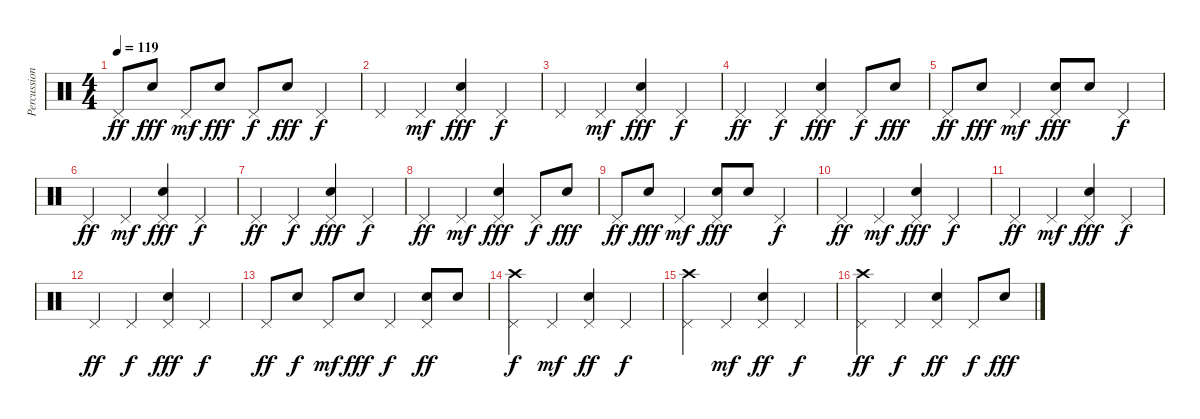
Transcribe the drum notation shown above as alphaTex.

\track ("Percussion" "Percussion") {instrument percussion}
\staff {score}
\articulation defaults
\ts (4 4)
\tempo 119
\clef neutral
\ks c "Pedal Hi-Hat (hit)".8{dy ff} "Electric Snare (hit)".8{dy fff} "Pedal Hi-Hat (hit)".8{dy mf} "Electric Snare (hit)".8{dy fff} "Pedal Hi-Hat (hit)".8{dy f} "Electric Snare (hit)".8{dy fff} "Pedal Hi-Hat (hit)".4{dy f}
|
"Pedal Hi-Hat (hit)".4 "Pedal Hi-Hat (hit)".4{dy mf} ("Pedal Hi-Hat (hit)" "Electric Snare (hit)").4{dy fff} "Pedal Hi-Hat (hit)".4{dy f} |
"Pedal Hi-Hat (hit)".4 "Pedal Hi-Hat (hit)".4{dy mf} ("Pedal Hi-Hat (hit)" "Electric Snare (hit)").4{dy fff} "Pedal Hi-Hat (hit)".4{dy f} |
"Pedal Hi-Hat (hit)".4{dy ff} "Pedal Hi-Hat (hit)".4{dy f} ("Pedal Hi-Hat (hit)" "Electric Snare (hit)").4{dy fff} "Pedal Hi-Hat (hit)".8{dy f} "Electric Snare (hit)".8{dy fff} |
"Pedal Hi-Hat (hit)".8{dy ff} "Electric Snare (hit)".8{dy fff} "Pedal Hi-Hat (hit)".4{dy mf} ("Pedal Hi-Hat (hit)" "Electric Snare (hit)").8{dy fff} "Electric Snare (hit)".8 "Pedal Hi-Hat (hit)".4{dy f} |
"Pedal Hi-Hat (hit)".4{dy ff} "Pedal Hi-Hat (hit)".4{dy mf} ("Pedal Hi-Hat (hit)" "Electric Snare (hit)").4{dy fff} "Pedal Hi-Hat (hit)".4{dy f} |
"Pedal Hi-Hat (hit)".4{dy ff} "Pedal Hi-Hat (hit)".4{dy f} ("Pedal Hi-Hat (hit)" "Electric Snare (hit)").4{dy fff} "Pedal Hi-Hat (hit)".4{dy f} |
"Pedal Hi-Hat (hit)".4{dy ff} "Pedal Hi-Hat (hit)".4{dy mf} ("Pedal Hi-Hat (hit)" "Electric Snare (hit)").4{dy fff} "Pedal Hi-Hat (hit)".8{dy f} "Electric Snare (hit)".8{dy fff} |
"Pedal Hi-Hat (hit)".8{dy ff} "Electric Snare (hit)".8{dy fff} "Pedal Hi-Hat (hit)".4{dy mf} ("Pedal Hi-Hat (hit)" "Electric Snare (hit)").8{dy fff} "Electric Snare (hit)".8 "Pedal Hi-Hat (hit)".4{dy f} |
"Pedal Hi-Hat (hit)".4{dy ff} "Pedal Hi-Hat (hit)".4{dy mf} ("Pedal Hi-Hat (hit)" "Electric Snare (hit)").4{dy fff} "Pedal Hi-Hat (hit)".4{dy f} |
"Pedal Hi-Hat (hit)".4{dy ff} "Pedal Hi-Hat (hit)".4{dy mf} ("Pedal Hi-Hat (hit)" "Electric Snare (hit)").4{dy fff} "Pedal Hi-Hat (hit)".4{dy f} |
"Pedal Hi-Hat (hit)".4{dy ff} "Pedal Hi-Hat (hit)".4{dy f} ("Pedal Hi-Hat (hit)" "Electric Snare (hit)").4{dy fff} "Pedal Hi-Hat (hit)".4{dy f} |
"Pedal Hi-Hat (hit)".8{dy ff} "Electric Snare (hit)".8{dy f} "Pedal Hi-Hat (hit)".8{dy mf} "Electric Snare (hit)".8{dy fff} "Pedal Hi-Hat (hit)".4{dy f} ("Pedal Hi-Hat (hit)" "Snare (hit) 2").8{dy ff} "Snare (hit) 2".8 |
("Pedal Hi-Hat (hit)" "Crash high (hit)").4{dy f} "Pedal Hi-Hat (hit)".4{dy mf} ("Pedal Hi-Hat (hit)" "Snare (hit) 2").4{dy ff} "Pedal Hi-Hat (hit)".4{dy f} |
("Pedal Hi-Hat (hit)" "Crash high (hit)").4 "Pedal Hi-Hat (hit)".4{dy mf} ("Pedal Hi-Hat (hit)" "Snare (hit) 2").4{dy ff} "Pedal Hi-Hat (hit)".4{dy f} |
("Pedal Hi-Hat (hit)" "Crash high (hit)").4{dy ff} "Pedal Hi-Hat (hit)".4{dy f} ("Pedal Hi-Hat (hit)" "Snare (hit) 2").4{dy ff} "Pedal Hi-Hat (hit)".8{dy f} "Electric Snare (hit)".8{dy fff}
